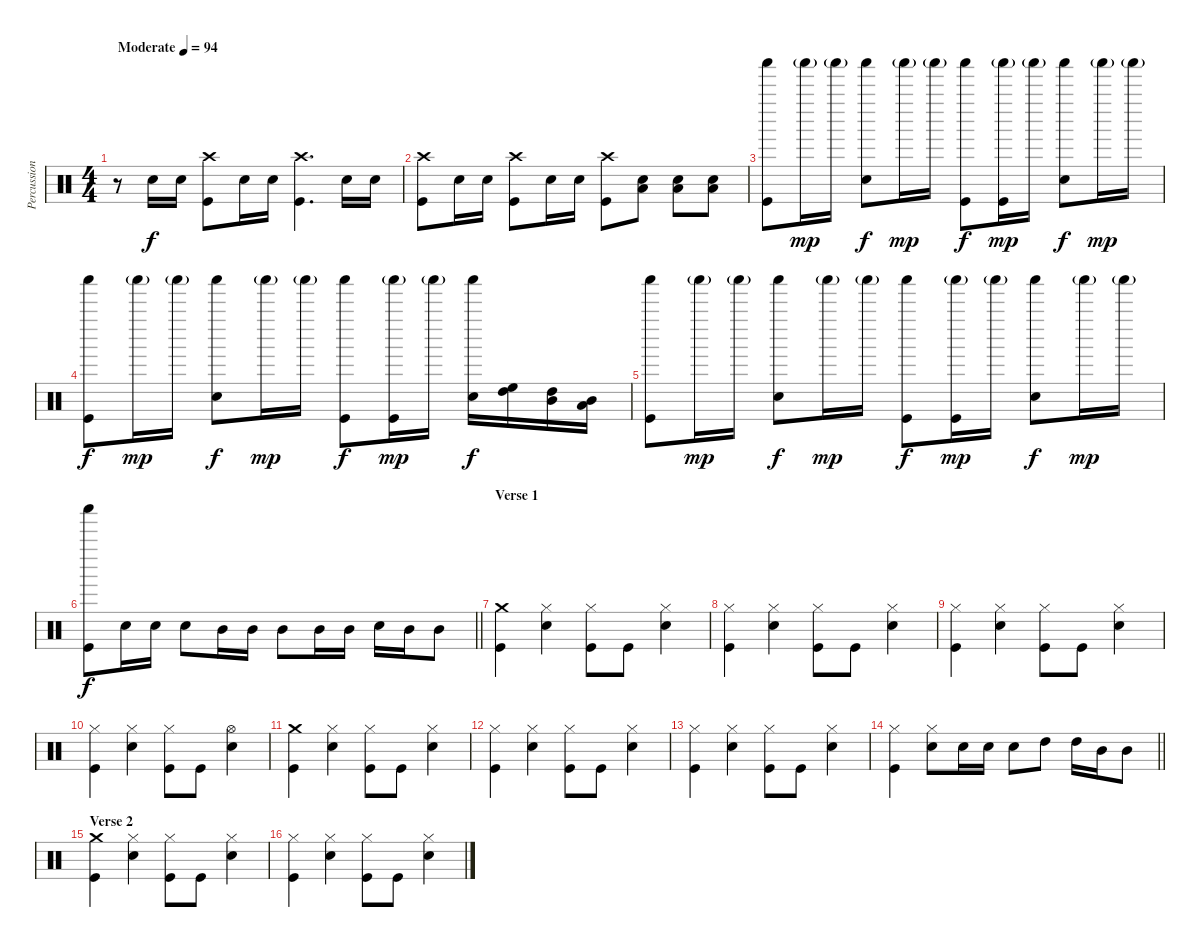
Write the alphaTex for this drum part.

\track ("Percussion" "Percussion") {instrument percussion}
\staff {score}
\articulation defaults
\ts (4 4)
\tempo (94 "Moderate")
\clef neutral
\ks c
r.8{dy f} "Snare (hit) 2".16 "Snare (hit) 2".16 ("Crash high (hit)" "Kick (hit)").8 "Snare (hit) 2".16 "Snare (hit) 2".16 ("Crash high (hit)" "Kick (hit)").4{d} "Snare (hit) 2".16 "Snare (hit) 2".16 |
("Crash high (hit)" "Kick (hit)").8 "Snare (hit) 2".16 "Snare (hit) 2".16 ("Crash high (hit)" "Kick (hit)").8 "Snare (hit) 2".16 "Snare (hit) 2".16 ("Crash high (hit)" "Kick (hit)").8 ("Snare (hit) 2" "Low Tom (hit)").8 ("Snare (hit) 2" "Low Tom (hit)").8 ("Snare (hit) 2" "Low Tom (hit)").8 |
("Shaker (hit)" "Kick (hit)").8 "Shaker (hit)"{g}.16{dy mp} "Shaker (hit)"{g}.16 ("Shaker (hit)" "Snare (hit) 2").8{dy f} "Shaker (hit)"{g}.16{dy mp} "Shaker (hit)"{g}.16 ("Shaker (hit)" "Kick (hit)").8{dy f} ("Shaker (hit)"{g} "Kick (hit)").16{dy mp} "Shaker (hit)"{g}.16 ("Shaker (hit)" "Snare (hit) 2").8{dy f} "Shaker (hit)"{g}.16{dy mp} "Shaker (hit)"{g}.16 |
("Shaker (hit)" "Kick (hit)").8{dy f} "Shaker (hit)"{g}.16{dy mp} "Shaker (hit)"{g}.16 ("Shaker (hit)" "Snare (hit) 2").8{dy f} "Shaker (hit)"{g}.16{dy mp} "Shaker (hit)"{g}.16 ("Shaker (hit)" "Kick (hit)").8{dy f} ("Shaker (hit)"{g} "Kick (hit)").16{dy mp} "Shaker (hit)"{g}.16 ("Shaker (hit)" "Snare (hit) 2").16{dy f} ("High Floor Tom (hit)" "High Tom (hit)").16 ("High Tom (hit)" "Mid Tom (hit)").16 ("Mid Tom (hit)" "Low Tom (hit)").16 |
("Shaker (hit)" "Kick (hit)").8 "Shaker (hit)"{g}.16{dy mp} "Shaker (hit)"{g}.16 ("Shaker (hit)" "Snare (hit) 2").8{dy f} "Shaker (hit)"{g}.16{dy mp} "Shaker (hit)"{g}.16 ("Shaker (hit)" "Kick (hit)").8{dy f} ("Shaker (hit)"{g} "Kick (hit)").16{dy mp} "Shaker (hit)"{g}.16 ("Shaker (hit)" "Snare (hit) 2").8{dy f} "Shaker (hit)"{g}.16{dy mp} "Shaker (hit)"{g}.16 |
\barLineRight lightlight
("Shaker (hit)" "Kick (hit)").8{dy f} "Snare (hit) 2".16 "Snare (hit) 2".16 "Snare (hit) 2".8 "Mid Tom (hit)".16 "Mid Tom (hit)".16 "Mid Tom (hit)".8 "Mid Tom (hit)".16 "Mid Tom (hit)".16 "Snare (hit) 2".16 "Mid Tom (hit)".16 "Mid Tom (hit)".8 |
\section ("" "Verse 1")
("Crash medium (hit)" "Kick (hit)").4 ("Hi-Hat (closed)" "Snare (hit) 2").4 ("Hi-Hat (closed)" "Kick (hit)").8 "Kick (hit)".8 ("Hi-Hat (closed)" "Snare (hit) 2").4 |
("Hi-Hat (closed)" "Kick (hit)").4 ("Hi-Hat (closed)" "Snare (hit) 2").4 ("Hi-Hat (closed)" "Kick (hit)").8 "Kick (hit)".8 ("Hi-Hat (closed)" "Snare (hit) 2").4 |
("Hi-Hat (closed)" "Kick (hit)").4 ("Hi-Hat (closed)" "Snare (hit) 2").4 ("Hi-Hat (closed)" "Kick (hit)").8 "Kick (hit)".8 ("Hi-Hat (closed)" "Snare (hit) 2").4 |
("Hi-Hat (closed)" "Kick (hit)").4 ("Hi-Hat (closed)" "Snare (hit) 2").4 ("Hi-Hat (closed)" "Kick (hit)").8 "Kick (hit)".8 ("Hi-Hat (open)" "Snare (hit) 2").4 |
("Crash medium (hit)" "Kick (hit)").4 ("Hi-Hat (closed)" "Snare (hit) 2").4 ("Hi-Hat (closed)" "Kick (hit)").8 "Kick (hit)".8 ("Hi-Hat (closed)" "Snare (hit) 2").4 |
("Hi-Hat (closed)" "Kick (hit)").4 ("Hi-Hat (closed)" "Snare (hit) 2").4 ("Hi-Hat (closed)" "Kick (hit)").8 "Kick (hit)".8 ("Hi-Hat (closed)" "Snare (hit) 2").4 |
("Hi-Hat (closed)" "Kick (hit)").4 ("Hi-Hat (closed)" "Snare (hit) 2").4 ("Hi-Hat (closed)" "Kick (hit)").8 "Kick (hit)".8 ("Hi-Hat (closed)" "Snare (hit) 2").4 |
\barLineRight lightlight
("Hi-Hat (closed)" "Kick (hit)").4 ("Hi-Hat (closed)" "Snare (hit) 2").8 "Snare (hit) 2".16 "Snare (hit) 2".16 "Snare (hit) 2".8 "High Tom (hit)".8 "High Tom (hit)".16 "Mid Tom (hit)".16 "Mid Tom (hit)".8 |
\section ("" "Verse 2")
("Crash medium (hit)" "Kick (hit)").4 ("Hi-Hat (closed)" "Snare (hit) 2").4 ("Hi-Hat (closed)" "Kick (hit)").8 "Kick (hit)".8 ("Hi-Hat (closed)" "Snare (hit) 2").4 |
("Hi-Hat (closed)" "Kick (hit)").4 ("Hi-Hat (closed)" "Snare (hit) 2").4 ("Hi-Hat (closed)" "Kick (hit)").8 "Kick (hit)".8 ("Hi-Hat (closed)" "Snare (hit) 2").4
